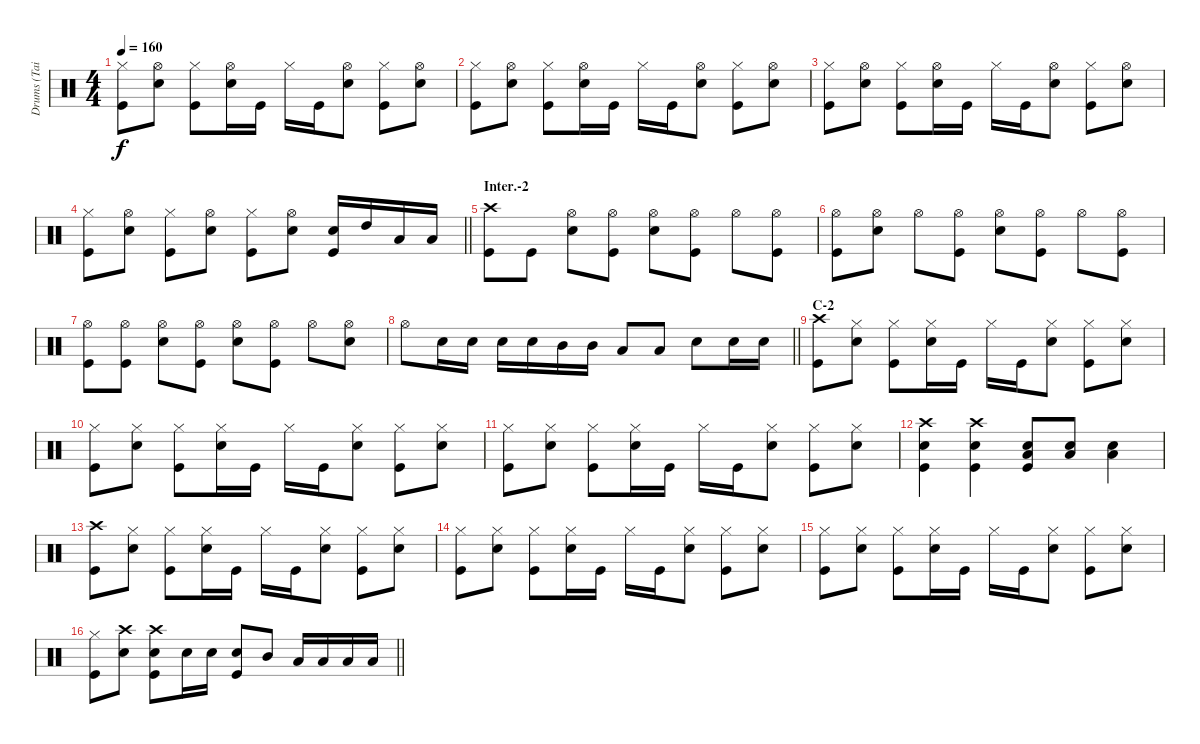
\track ("Drums (Tainaka Ritsu)" "Drums (Tai") {instrument percussion}
\staff {score}
\articulation defaults
\ts (4 4)
\tempo 160
\clef neutral
\ks c
("Hi-Hat (closed)" "Kick (hit)").8{dy f} ("Hi-Hat (open)" "Snare (hit) 2").8 ("Hi-Hat (closed)" "Kick (hit)").8 ("Hi-Hat (open)" "Snare (hit) 2").16 "Kick (hit)".16 "Hi-Hat (closed)".16 "Kick (hit)".16 ("Hi-Hat (open)" "Snare (hit) 2").8 ("Hi-Hat (closed)" "Kick (hit)").8 ("Hi-Hat (open)" "Snare (hit) 2").8 |
("Hi-Hat (closed)" "Kick (hit)").8 ("Hi-Hat (open)" "Snare (hit) 2").8 ("Hi-Hat (closed)" "Kick (hit)").8 ("Hi-Hat (open)" "Snare (hit) 2").16 "Kick (hit)".16 "Hi-Hat (closed)".16 "Kick (hit)".16 ("Hi-Hat (open)" "Snare (hit) 2").8 ("Hi-Hat (closed)" "Kick (hit)").8 ("Hi-Hat (open)" "Snare (hit) 2").8 |
("Hi-Hat (closed)" "Kick (hit)").8 ("Hi-Hat (open)" "Snare (hit) 2").8 ("Hi-Hat (closed)" "Kick (hit)").8 ("Hi-Hat (open)" "Snare (hit) 2").16 "Kick (hit)".16 "Hi-Hat (closed)".16 "Kick (hit)".16 ("Hi-Hat (open)" "Snare (hit) 2").8 ("Hi-Hat (closed)" "Kick (hit)").8 ("Hi-Hat (open)" "Snare (hit) 2").8 |
\barLineRight lightlight
("Hi-Hat (closed)" "Kick (hit)").8 ("Hi-Hat (open)" "Snare (hit) 2").8 ("Hi-Hat (closed)" "Kick (hit)").8 ("Hi-Hat (open)" "Snare (hit) 2").8 ("Hi-Hat (closed)" "Kick (hit)").8 ("Hi-Hat (open)" "Snare (hit) 2").8 ("Snare (hit) 2" "Kick (hit)").16 "High Tom (hit)".16 "Low Tom (hit)".16 "Low Tom (hit)".16 |
\section ("" "Inter.-2")
("Crash high (hit)" "Kick (hit)").8 "Kick (hit)".8 ("Hi-Hat (open)" "Snare (hit) 2").8 ("Hi-Hat (open)" "Kick (hit)").8 ("Hi-Hat (open)" "Snare (hit) 2").8 ("Hi-Hat (open)" "Kick (hit)").8 "Hi-Hat (open)".8 ("Hi-Hat (open)" "Kick (hit)").8 |
("Hi-Hat (open)" "Kick (hit)").8 ("Hi-Hat (open)" "Snare (hit) 2").8 "Hi-Hat (open)".8 ("Hi-Hat (open)" "Kick (hit)").8 ("Hi-Hat (open)" "Snare (hit) 2").8 ("Hi-Hat (open)" "Kick (hit)").8 "Hi-Hat (open)".8 ("Hi-Hat (open)" "Kick (hit)").8 |
("Hi-Hat (open)" "Kick (hit)").8 ("Hi-Hat (open)" "Kick (hit)").8 ("Hi-Hat (open)" "Snare (hit) 2").8 ("Hi-Hat (open)" "Kick (hit)").8 ("Hi-Hat (open)" "Snare (hit) 2").8 ("Hi-Hat (open)" "Kick (hit)").8 "Hi-Hat (open)".8 ("Hi-Hat (open)" "Snare (hit) 2").8 |
\barLineRight lightlight "Hi-Hat (open)".8 "Snare (hit) 2".16 "Snare (hit) 2".16 "Snare (hit) 2".16 "Snare (hit) 2".16 "Mid Tom (hit)".16 "Mid Tom (hit)".16 "Low Tom (hit)".8 "Low Tom (hit)".8 "Snare (hit) 2".8 "Snare (hit) 2".16 "Snare (hit) 2".16
|
\section ("" "C-2")
("Crash high (hit)" "Kick (hit)").8 ("Hi-Hat (closed)" "Snare (hit) 2").8 ("Hi-Hat (closed)" "Kick (hit)").8 ("Hi-Hat (closed)" "Snare (hit) 2").16 "Kick (hit)".16 "Hi-Hat (closed)".16 "Kick (hit)".16 ("Hi-Hat (closed)" "Snare (hit) 2").8 ("Hi-Hat (closed)" "Kick (hit)").8 ("Hi-Hat (closed)" "Snare (hit) 2").8 |
("Hi-Hat (closed)" "Kick (hit)").8 ("Hi-Hat (closed)" "Snare (hit) 2").8 ("Hi-Hat (closed)" "Kick (hit)").8 ("Hi-Hat (closed)" "Snare (hit) 2").16 "Kick (hit)".16 "Hi-Hat (closed)".16 "Kick (hit)".16 ("Hi-Hat (closed)" "Snare (hit) 2").8 ("Hi-Hat (closed)" "Kick (hit)").8 ("Hi-Hat (closed)" "Snare (hit) 2").8 |
("Hi-Hat (closed)" "Kick (hit)").8 ("Hi-Hat (closed)" "Snare (hit) 2").8 ("Hi-Hat (closed)" "Kick (hit)").8 ("Hi-Hat (closed)" "Snare (hit) 2").16 "Kick (hit)".16 "Hi-Hat (closed)".16 "Kick (hit)".16 ("Hi-Hat (closed)" "Snare (hit) 2").8 ("Hi-Hat (closed)" "Kick (hit)").8 ("Hi-Hat (closed)" "Snare (hit) 2").8 |
("Crash high (hit)" "Snare (hit) 2" "Kick (hit)").4 ("Crash high (hit)" "Snare (hit) 2" "Kick (hit)").4 ("Snare (hit) 2" "Low Tom (hit)" "Kick (hit)").8 ("Snare (hit) 2" "Low Tom (hit)").8 ("Snare (hit) 2" "Low Tom (hit)").4 |
("Crash high (hit)" "Kick (hit)").8 ("Hi-Hat (closed)" "Snare (hit) 2").8 ("Hi-Hat (closed)" "Kick (hit)").8 ("Hi-Hat (closed)" "Snare (hit) 2").16 "Kick (hit)".16 "Hi-Hat (closed)".16 "Kick (hit)".16 ("Hi-Hat (closed)" "Snare (hit) 2").8 ("Hi-Hat (closed)" "Kick (hit)").8 ("Hi-Hat (closed)" "Snare (hit) 2").8 |
("Hi-Hat (closed)" "Kick (hit)").8 ("Hi-Hat (closed)" "Snare (hit) 2").8 ("Hi-Hat (closed)" "Kick (hit)").8 ("Hi-Hat (closed)" "Snare (hit) 2").16 "Kick (hit)".16 "Hi-Hat (closed)".16 "Kick (hit)".16 ("Hi-Hat (closed)" "Snare (hit) 2").8 ("Hi-Hat (closed)" "Kick (hit)").8 ("Hi-Hat (closed)" "Snare (hit) 2").8 |
("Hi-Hat (closed)" "Kick (hit)").8 ("Hi-Hat (closed)" "Snare (hit) 2").8 ("Hi-Hat (closed)" "Kick (hit)").8 ("Hi-Hat (closed)" "Snare (hit) 2").16 "Kick (hit)".16 "Hi-Hat (closed)".16 "Kick (hit)".16 ("Hi-Hat (closed)" "Snare (hit) 2").8 ("Hi-Hat (closed)" "Kick (hit)").8 ("Hi-Hat (closed)" "Snare (hit) 2").8 |
\barLineRight lightlight
("Hi-Hat (closed)" "Kick (hit)").8 ("Crash high (hit)" "Snare (hit) 2").8 ("Crash high (hit)" "Snare (hit) 2" "Kick (hit)").8 "Snare (hit) 2".16 "Snare (hit) 2".16 ("Snare (hit) 2" "Kick (hit)").8 "Mid Tom (hit)".8 "Low Tom (hit)".16 "Low Tom (hit)".16 "Low Tom (hit)".16 "Low Tom (hit)".16
